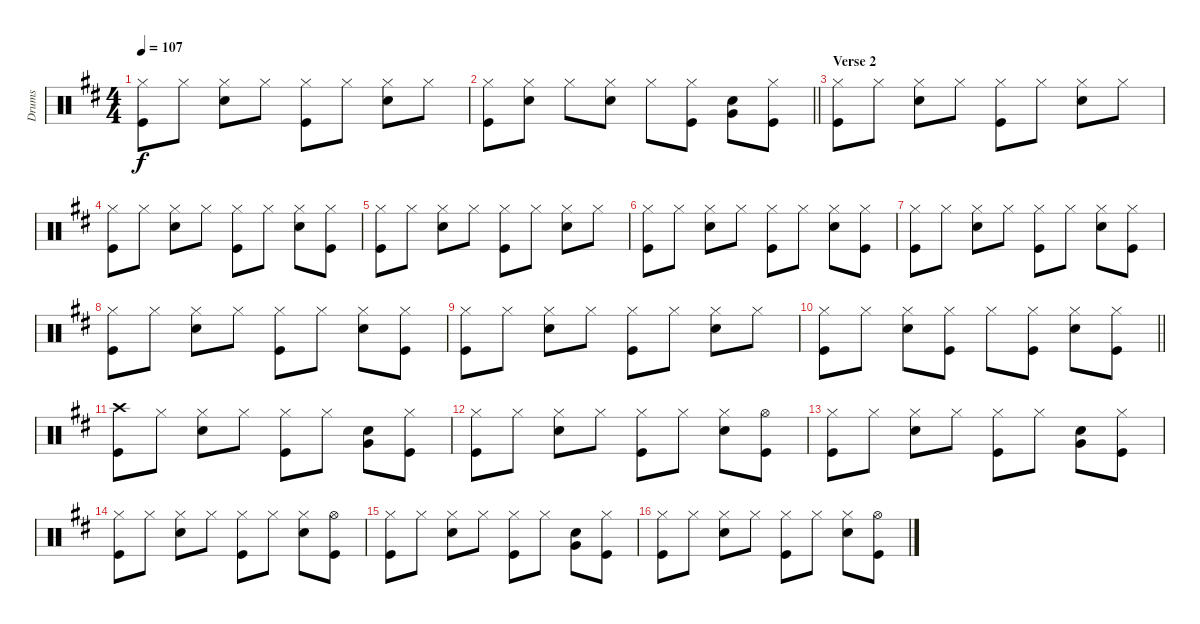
\track ("Drums" "Drums") {instrument percussion}
\staff {score}
\articulation defaults
\ts (4 4)
\tempo 107
\clef neutral
\ks d
("Hi-Hat (closed)" "Kick (hit)").8{dy f} "Hi-Hat (closed)".8 ("Hi-Hat (closed)" "Snare (hit) 2").8 "Hi-Hat (closed)".8 ("Hi-Hat (closed)" "Kick (hit)").8 "Hi-Hat (closed)".8 ("Hi-Hat (closed)" "Snare (hit) 2").8 "Hi-Hat (closed)".8 |
\barLineRight lightlight
("Hi-Hat (closed)" "Kick (hit)").8 ("Hi-Hat (closed)" "Snare (hit) 2").8 "Hi-Hat (closed)".8 ("Hi-Hat (closed)" "Snare (hit) 2").8 "Hi-Hat (closed)".8 ("Hi-Hat (closed)" "Kick (hit)").8 ("Snare (hit) 2" "Very Low Tom (hit)").8 ("Hi-Hat (closed)" "Kick (hit)").8 |
\section ("" "Verse 2")
("Hi-Hat (closed)" "Kick (hit)").8 "Hi-Hat (closed)".8 ("Hi-Hat (closed)" "Snare (hit) 2").8 "Hi-Hat (closed)".8 ("Hi-Hat (closed)" "Kick (hit)").8 "Hi-Hat (closed)".8 ("Hi-Hat (closed)" "Snare (hit) 2").8 "Hi-Hat (closed)".8 |
("Hi-Hat (closed)" "Kick (hit)").8 "Hi-Hat (closed)".8 ("Hi-Hat (closed)" "Snare (hit) 2").8 "Hi-Hat (closed)".8 ("Hi-Hat (closed)" "Kick (hit)").8 "Hi-Hat (closed)".8 ("Hi-Hat (closed)" "Snare (hit) 2").8 ("Hi-Hat (closed)" "Kick (hit)").8 |
("Hi-Hat (closed)" "Kick (hit)").8 "Hi-Hat (closed)".8 ("Hi-Hat (closed)" "Snare (hit) 2").8 "Hi-Hat (closed)".8 ("Hi-Hat (closed)" "Kick (hit)").8 "Hi-Hat (closed)".8 ("Hi-Hat (closed)" "Snare (hit) 2").8 "Hi-Hat (closed)".8 |
("Hi-Hat (closed)" "Kick (hit)").8 "Hi-Hat (closed)".8 ("Hi-Hat (closed)" "Snare (hit) 2").8 "Hi-Hat (closed)".8 ("Hi-Hat (closed)" "Kick (hit)").8 "Hi-Hat (closed)".8 ("Hi-Hat (closed)" "Snare (hit) 2").8 ("Hi-Hat (closed)" "Kick (hit)").8 |
("Hi-Hat (closed)" "Kick (hit)").8 "Hi-Hat (closed)".8 ("Hi-Hat (closed)" "Snare (hit) 2").8 "Hi-Hat (closed)".8 ("Hi-Hat (closed)" "Kick (hit)").8 "Hi-Hat (closed)".8 ("Hi-Hat (closed)" "Snare (hit) 2").8 ("Hi-Hat (closed)" "Kick (hit)").8 |
("Hi-Hat (closed)" "Kick (hit)").8 "Hi-Hat (closed)".8 ("Hi-Hat (closed)" "Snare (hit) 2").8 "Hi-Hat (closed)".8 ("Hi-Hat (closed)" "Kick (hit)").8 "Hi-Hat (closed)".8 ("Hi-Hat (closed)" "Snare (hit) 2").8 ("Hi-Hat (closed)" "Kick (hit)").8 |
("Hi-Hat (closed)" "Kick (hit)").8 "Hi-Hat (closed)".8 ("Hi-Hat (closed)" "Snare (hit) 2").8 "Hi-Hat (closed)".8 ("Hi-Hat (closed)" "Kick (hit)").8 "Hi-Hat (closed)".8 ("Hi-Hat (closed)" "Snare (hit) 2").8 "Hi-Hat (closed)".8 |
\barLineRight lightlight
("Hi-Hat (closed)" "Kick (hit)").8 "Hi-Hat (closed)".8 ("Hi-Hat (closed)" "Snare (hit) 2").8 ("Hi-Hat (closed)" "Kick (hit)").8 "Hi-Hat (closed)".8 ("Hi-Hat (closed)" "Kick (hit)").8 ("Hi-Hat (closed)" "Snare (hit) 2").8 ("Hi-Hat (closed)" "Kick (hit)").8 |
("Crash high (hit)" "Kick (hit)").8 "Hi-Hat (closed)".8 ("Hi-Hat (closed)" "Snare (hit) 2").8 "Hi-Hat (closed)".8 ("Hi-Hat (closed)" "Kick (hit)").8 "Hi-Hat (closed)".8 ("Snare (hit) 2" "Very Low Tom (hit)").8 ("Hi-Hat (closed)" "Kick (hit)").8 |
("Hi-Hat (closed)" "Kick (hit)").8 "Hi-Hat (closed)".8 ("Hi-Hat (closed)" "Snare (hit) 2").8 "Hi-Hat (closed)".8 ("Hi-Hat (closed)" "Kick (hit)").8 "Hi-Hat (closed)".8 ("Hi-Hat (closed)" "Snare (hit) 2").8 ("Hi-Hat (open)" "Kick (hit)").8 |
("Hi-Hat (closed)" "Kick (hit)").8 "Hi-Hat (closed)".8 ("Hi-Hat (closed)" "Snare (hit) 2").8 "Hi-Hat (closed)".8 ("Hi-Hat (closed)" "Kick (hit)").8 "Hi-Hat (closed)".8 ("Snare (hit) 2" "Very Low Tom (hit)").8 ("Hi-Hat (closed)" "Kick (hit)").8 |
("Hi-Hat (closed)" "Kick (hit)").8 "Hi-Hat (closed)".8 ("Hi-Hat (closed)" "Snare (hit) 2").8 "Hi-Hat (closed)".8 ("Hi-Hat (closed)" "Kick (hit)").8 "Hi-Hat (closed)".8 ("Hi-Hat (closed)" "Snare (hit) 2").8 ("Hi-Hat (open)" "Kick (hit)").8 |
("Hi-Hat (closed)" "Kick (hit)").8 "Hi-Hat (closed)".8 ("Hi-Hat (closed)" "Snare (hit) 2").8 "Hi-Hat (closed)".8 ("Hi-Hat (closed)" "Kick (hit)").8 "Hi-Hat (closed)".8 ("Snare (hit) 2" "Very Low Tom (hit)").8 ("Hi-Hat (closed)" "Kick (hit)").8 |
("Hi-Hat (closed)" "Kick (hit)").8 "Hi-Hat (closed)".8 ("Hi-Hat (closed)" "Snare (hit) 2").8 "Hi-Hat (closed)".8 ("Hi-Hat (closed)" "Kick (hit)").8 "Hi-Hat (closed)".8 ("Hi-Hat (closed)" "Snare (hit) 2").8 ("Hi-Hat (open)" "Kick (hit)").8
